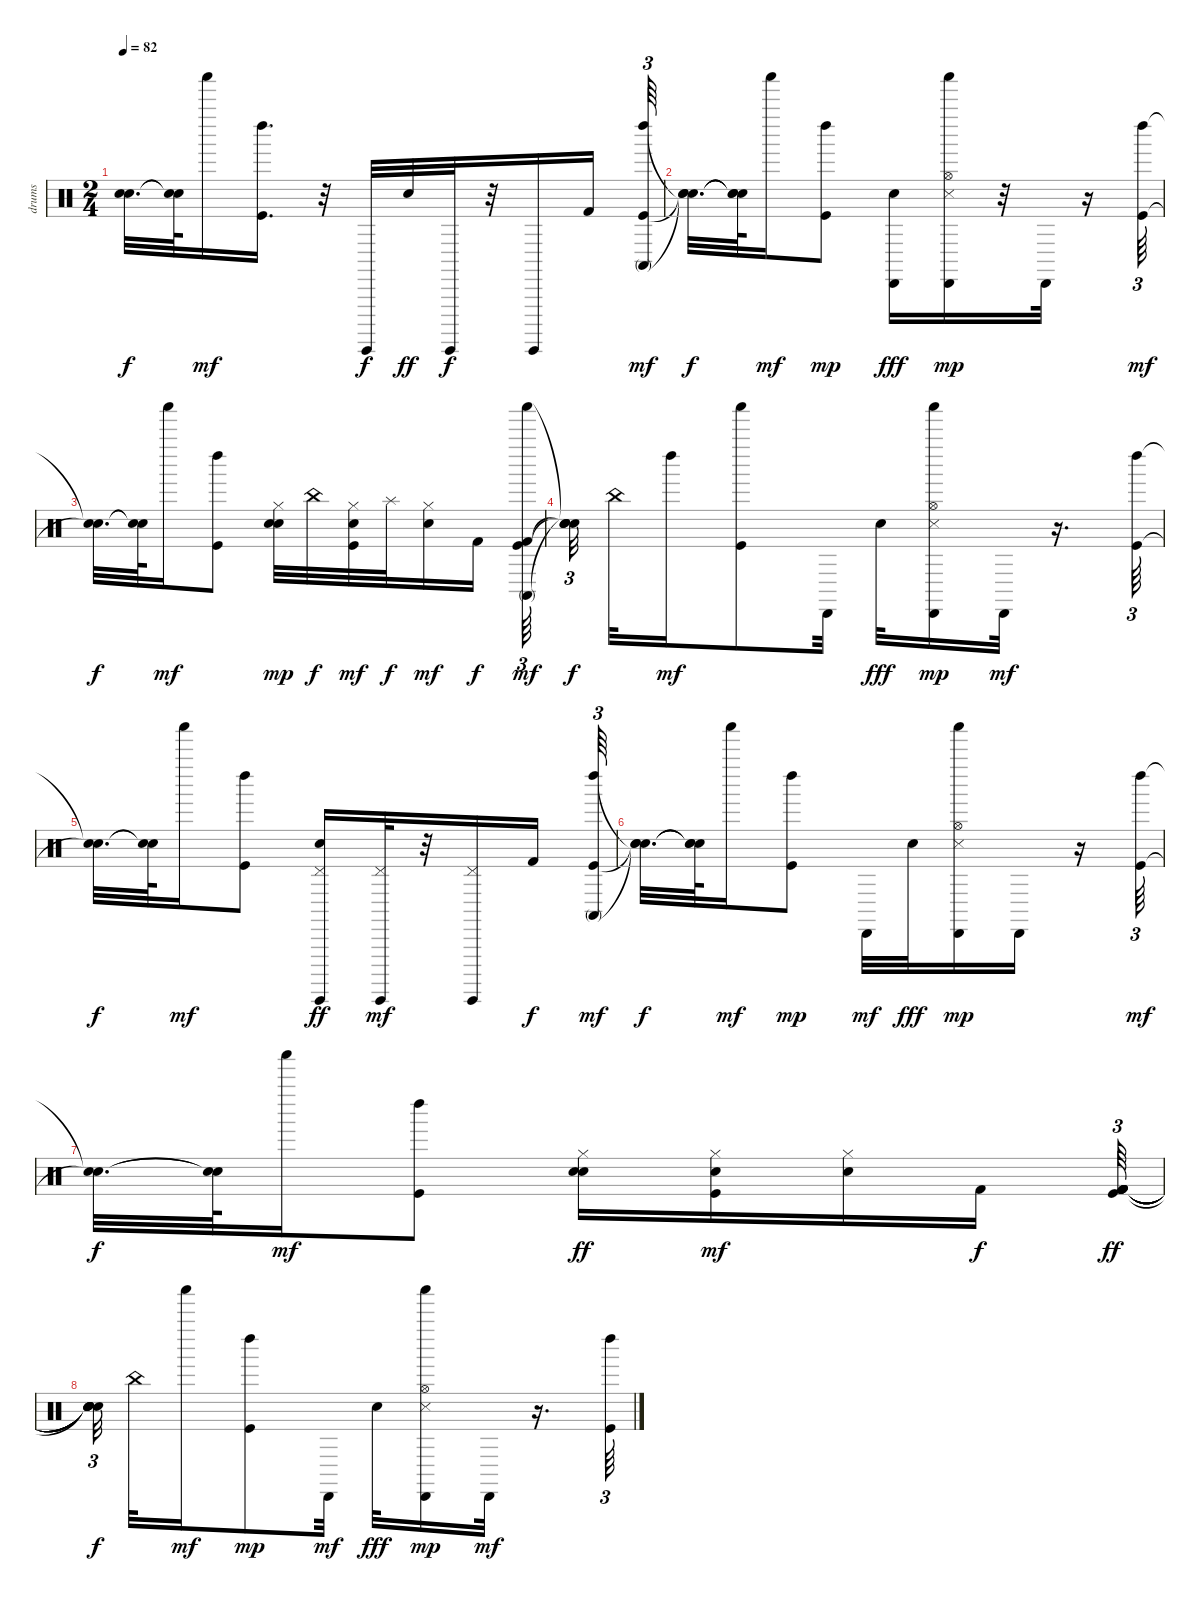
\track ("drums" "drums") {instrument percussion}
\staff {score}
\articulation defaults
\ts (2 4)
\tempo 82
\clef neutral
\ks c
("Snare (hit)"{t} "Snare (hit)"{t}).32{d dy f} ("Snare (hit)"{t} "Snare (hit)"{t}).64 "Shaker (hit)".16{dy mf} ("Kick (hit)" "Left Maraca (hit)").16{d} r.32 "Guiro (hit)".32{dy f} "Electric Snare (hit)".32{dy ff} "Guiro (hit)".32{dy f} r.32 "Guiro (hit)".16 "Kick (hit) 2".16 ("Kick (hit)" "Left Maraca (hit)" "Conga high (mute)").64{tu (3 2) dy mf} |
("Snare (hit)"{t} "Snare (hit)"{t} "Snare (hit)"{t}).32{d dy f} ("Snare (hit)"{t} "Snare (hit)"{t} "Snare (hit)"{t}).64 "Shaker (hit)".16{dy mf} ("Kick (hit)" "Left Maraca (hit)").8{dy mp} ("Cabasa (hit)" "Electric Snare (hit)").16{dy fff} ("Snare (side stick) 3" "Shaker (hit)" "Hi-Hat (open)" "Cabasa (hit)").16{dy mp} r.32 "Cabasa (hit)".32 r.16 ("Kick (hit)" "Left Maraca (hit)").64{tu (3 2) dy mf} |
("Snare (hit)"{t} "Snare (hit)"{t}).32{d dy f} ("Snare (hit)"{t} "Snare (hit)"{t}).64 "Shaker (hit)".16{dy mf} ("Kick (hit)" "Left Maraca (hit)").8 ("Electric Snare (hit)" "Hand Clap (hit)" "Hi-Hat (closed)").32{dy mp} "China (hit)".32{dy f} ("Kick (hit)" "Hi-Hat (closed)" "Hand Clap (hit)").32{dy mf} "Splash (hit)".32{dy f} ("Hi-Hat (closed)" "Hand Clap (hit)").16{dy mf} "Kick (hit) 2".16{dy f} ("Kick (hit) 2" "Kick (hit)" "Shaker (hit)" "Conga high (mute)").64{tu (3 2) dy mf} |
("Snare (hit)"{t} "Snare (hit)"{t} "Snare (hit)"{t} "Snare (hit)"{t}).32{tu (3 2) dy f beam splitsecondary} "China (hit)".32 "Left Maraca (hit)".16{dy mf} ("Kick (hit)" "Shaker (hit)").8 "Cabasa (hit)".32 "Electric Snare (hit)".32{dy fff} ("Cabasa (hit)" "Hi-Hat (open)" "Shaker (hit)" "Snare (side stick) 3").16{dy mp} "Cabasa (hit)".32{dy mf} r.16{d} ("Kick (hit)" "Left Maraca (hit)").64{tu (3 2)} |
("Snare (hit)"{t} "Snare (hit)"{t}).32{d dy f} ("Snare (hit)"{t} "Snare (hit)"{t}).64 "Shaker (hit)".16{dy mf} ("Kick (hit)" "Left Maraca (hit)").8 ("Pedal Hi-Hat (hit)" "Guiro (hit)" "Electric Snare (hit)").16{dy ff} ("Guiro (hit)" "Pedal Hi-Hat (hit)").32{dy mf} r.32 ("Guiro (hit)" "Pedal Hi-Hat (hit)").16 "Kick (hit) 2".16{dy f} ("Kick (hit)" "Left Maraca (hit)" "Conga high (mute)").64{tu (3 2) dy mf} |
("Snare (hit)"{t} "Snare (hit)"{t} "Snare (hit)"{t}).32{d dy f} ("Snare (hit)"{t} "Snare (hit)"{t} "Snare (hit)"{t}).64 "Shaker (hit)".16{dy mf} ("Kick (hit)" "Left Maraca (hit)").8{dy mp} "Cabasa (hit)".32{dy mf} "Electric Snare (hit)".32{dy fff} ("Cabasa (hit)" "Snare (side stick) 3" "Shaker (hit)" "Hi-Hat (open)").16{dy mp} "Cabasa (hit)".16 r.16 ("Kick (hit)" "Left Maraca (hit)").64{tu (3 2) dy mf} |
("Snare (hit)"{t} "Snare (hit)"{t}).32{d dy f} ("Snare (hit)"{t} "Snare (hit)"{t}).64 "Shaker (hit)".16{dy mf} ("Kick (hit)" "Left Maraca (hit)").8 ("Hand Clap (hit)" "Hi-Hat (closed)" "Electric Snare (hit)").16{dy ff} ("Kick (hit)" "Hi-Hat (closed)" "Hand Clap (hit)").16{dy mf} ("Hi-Hat (closed)" "Hand Clap (hit)").16 "Kick (hit) 2".16{dy f} ("Kick (hit) 2" "Kick (hit) 2" "Kick (hit) 2" "Kick (hit) 2" "Kick (hit) 2" "Kick (hit)").64{tu (3 2) dy ff} |
("Snare (hit)"{t} "Snare (hit)"{t} "Snare (hit)"{t} "Snare (hit)"{t} "Snare (hit)"{t} "Snare (hit)"{t}).32{tu (3 2) dy f beam splitsecondary} "China (hit)".32 "Shaker (hit)".16{dy mf} ("Kick (hit)" "Left Maraca (hit)").8{dy mp} "Cabasa (hit)".32{dy mf} "Electric Snare (hit)".32{dy fff} ("Cabasa (hit)" "Snare (side stick) 3" "Shaker (hit)" "Hi-Hat (open)").16{dy mp} "Cabasa (hit)".32{dy mf} r.16{d} ("Kick (hit)" "Left Maraca (hit)").64{tu (3 2)}
